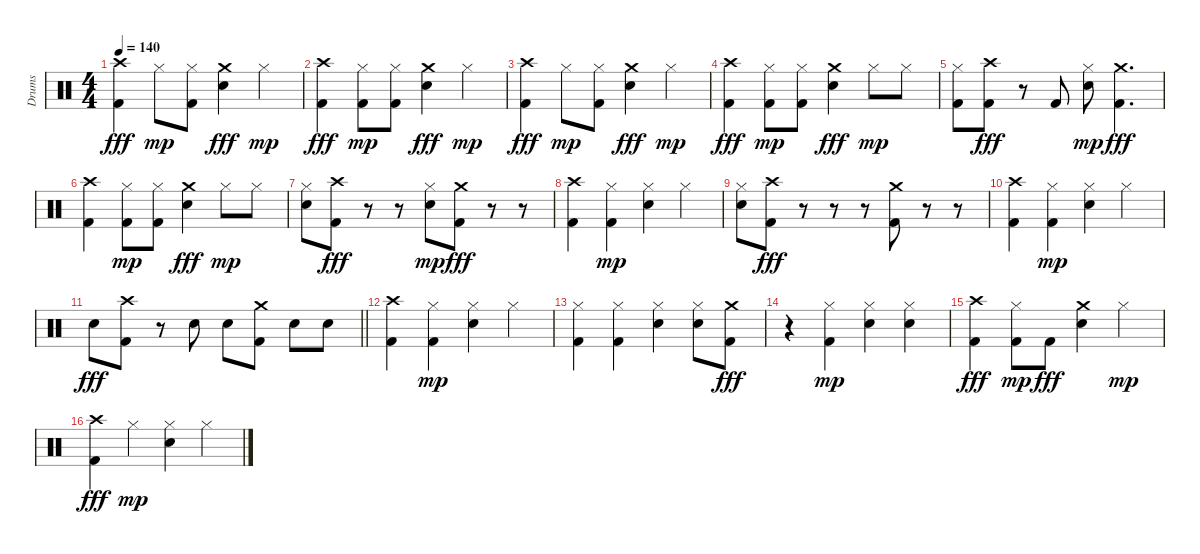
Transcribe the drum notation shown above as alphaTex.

\track ("Drums" "Drums") {instrument percussion}
\staff {score}
\articulation defaults
\ts (4 4)
\tempo 140
\clef neutral
\ks c
("Kick (hit) 2" "Crash high (hit)").4{dy fff} "Hi-Hat (closed)".8{dy mp} ("Kick (hit) 2" "Hi-Hat (closed)").8 ("Electric Snare (hit)" "Crash medium (hit)").4{dy fff} "Hi-Hat (closed)".4{dy mp} |
("Kick (hit) 2" "Crash high (hit)").4{dy fff} ("Kick (hit) 2" "Hi-Hat (closed)").8{dy mp} ("Kick (hit) 2" "Hi-Hat (closed)").8 ("Electric Snare (hit)" "Crash medium (hit)").4{dy fff} "Hi-Hat (closed)".4{dy mp} |
("Kick (hit) 2" "Crash high (hit)").4{dy fff} "Hi-Hat (closed)".8{dy mp} ("Kick (hit) 2" "Hi-Hat (closed)").8 ("Electric Snare (hit)" "Crash medium (hit)").4{dy fff} "Hi-Hat (closed)".4{dy mp} |
("Kick (hit) 2" "Crash high (hit)").4{dy fff} ("Kick (hit) 2" "Hi-Hat (closed)").8{dy mp} ("Kick (hit) 2" "Hi-Hat (closed)").8 ("Electric Snare (hit)" "Crash medium (hit)").4{dy fff} "Hi-Hat (closed)".8{dy mp} "Hi-Hat (closed)".8 |
("Kick (hit) 2" "Hi-Hat (closed)").8 ("Kick (hit) 2" "Crash high (hit)").8{dy fff} r.8 "Kick (hit) 2".8 ("Electric Snare (hit)" "Hi-Hat (closed)").8{dy mp} ("Kick (hit) 2" "Crash medium (hit)").4{d dy fff} |
("Kick (hit) 2" "Crash high (hit)").4 ("Kick (hit) 2" "Hi-Hat (closed)").8{dy mp} ("Kick (hit) 2" "Hi-Hat (closed)").8 ("Electric Snare (hit)" "Crash medium (hit)").4{dy fff} "Hi-Hat (closed)".8{dy mp} "Hi-Hat (closed)".8 |
("Electric Snare (hit)" "Hi-Hat (closed)").8 ("Kick (hit) 2" "Crash high (hit)").8{dy fff} r.8 r.8 ("Electric Snare (hit)" "Hi-Hat (closed)").8{dy mp} ("Kick (hit) 2" "Crash medium (hit)").8{dy fff} r.8 r.8 |
("Kick (hit) 2" "Crash high (hit)").4 ("Kick (hit) 2" "Hi-Hat (closed)").4{dy mp} ("Electric Snare (hit)" "Hi-Hat (closed)").4 "Hi-Hat (closed)".4 |
("Electric Snare (hit)" "Hi-Hat (closed)").8 ("Kick (hit) 2" "Crash high (hit)").8{dy fff} r.8 r.8 r.8 ("Kick (hit) 2" "Crash medium (hit)").8 r.8 r.8 |
("Kick (hit) 2" "Crash high (hit)").4 ("Kick (hit) 2" "Hi-Hat (closed)").4{dy mp} ("Electric Snare (hit)" "Hi-Hat (closed)").4 "Hi-Hat (closed)".4 |
\barLineRight lightlight "Electric Snare (hit)".8{dy fff}
("Kick (hit) 2" "Crash high (hit)").8 r.8 "Electric Snare (hit)".8 "Electric Snare (hit)".8 ("Kick (hit) 2" "Crash medium (hit)").8 "Electric Snare (hit)".8 "Electric Snare (hit)".8 |
("Kick (hit) 2" "Crash high (hit)").4 ("Kick (hit) 2" "Hi-Hat (closed)").4{dy mp} ("Electric Snare (hit)" "Hi-Hat (closed)").4 "Hi-Hat (closed)".4 |
("Kick (hit) 2" "Hi-Hat (closed)").4 ("Kick (hit) 2" "Hi-Hat (closed)").4 ("Electric Snare (hit)" "Hi-Hat (closed)").4 ("Electric Snare (hit)" "Hi-Hat (closed)").8 ("Kick (hit) 2" "Crash medium (hit)").8{dy fff} |
r.4 ("Kick (hit) 2" "Hi-Hat (closed)").4{dy mp} ("Electric Snare (hit)" "Hi-Hat (closed)").4 ("Electric Snare (hit)" "Hi-Hat (closed)").4 |
("Kick (hit) 2" "Crash high (hit)").4{dy fff} ("Kick (hit) 2" "Hi-Hat (closed)").8{dy mp} "Kick (hit) 2".8{dy fff} ("Electric Snare (hit)" "Crash medium (hit)").4 "Hi-Hat (closed)".4{dy mp} |
("Kick (hit) 2" "Crash high (hit)").4{dy fff} "Hi-Hat (closed)".4{dy mp} ("Electric Snare (hit)" "Hi-Hat (closed)").4 "Hi-Hat (closed)".4
